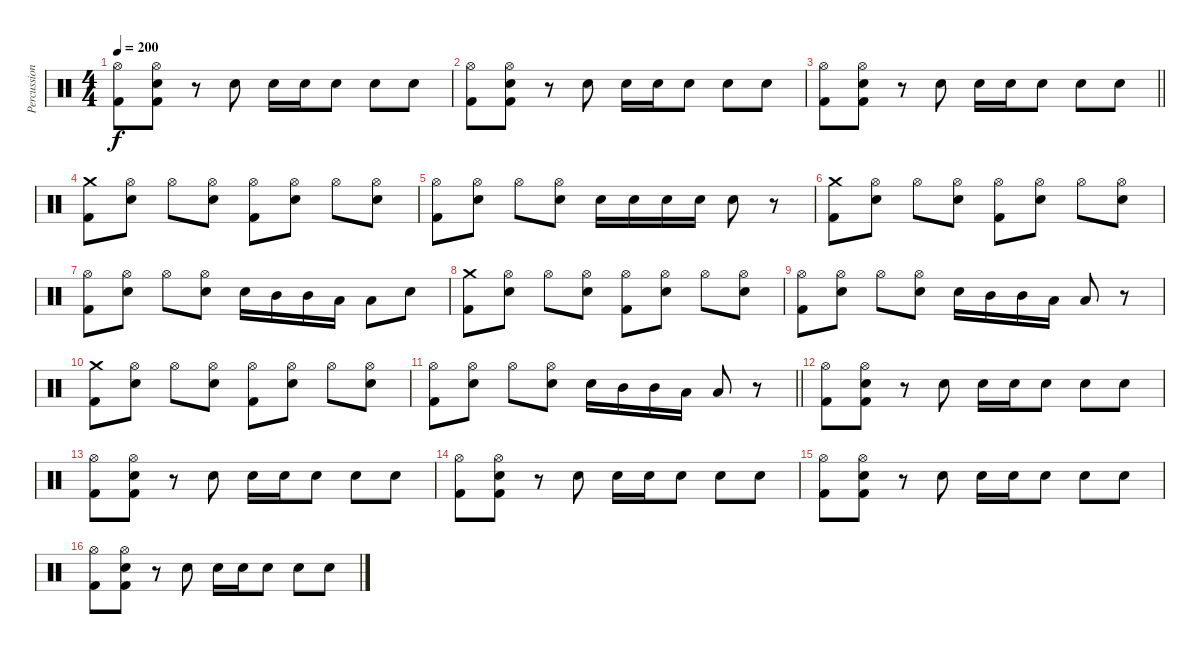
\track ("Percussion" "Percussion") {instrument percussion}
\staff {score}
\articulation defaults
\ts (4 4)
\tempo 200
\clef neutral
\ks c
("Hi-Hat (open)" "Kick (hit) 2").8{dy f} ("Hi-Hat (open)" "Electric Snare (hit)" "Kick (hit) 2").8 r.8 "Electric Snare (hit)".8 "Electric Snare (hit)".16 "Electric Snare (hit)".16 "Electric Snare (hit)".8 "Electric Snare (hit)".8 "Electric Snare (hit)".8 |
("Hi-Hat (open)" "Kick (hit) 2").8 ("Hi-Hat (open)" "Electric Snare (hit)" "Kick (hit) 2").8 r.8 "Electric Snare (hit)".8 "Electric Snare (hit)".16 "Electric Snare (hit)".16 "Electric Snare (hit)".8 "Electric Snare (hit)".8 "Electric Snare (hit)".8 |
\barLineRight lightlight
("Hi-Hat (open)" "Kick (hit) 2").8 ("Hi-Hat (open)" "Electric Snare (hit)" "Kick (hit) 2").8 r.8 "Electric Snare (hit)".8 "Electric Snare (hit)".16 "Electric Snare (hit)".16 "Electric Snare (hit)".8 "Electric Snare (hit)".8 "Electric Snare (hit)".8 |
("Crash medium (hit)" "Kick (hit) 2").8 ("Hi-Hat (open)" "Electric Snare (hit)").8 "Hi-Hat (open)".8 ("Hi-Hat (open)" "Electric Snare (hit)").8 ("Hi-Hat (open)" "Kick (hit) 2").8 ("Hi-Hat (open)" "Electric Snare (hit)").8 "Hi-Hat (open)".8 ("Hi-Hat (open)" "Electric Snare (hit)").8 |
("Hi-Hat (open)" "Kick (hit) 2").8 ("Hi-Hat (open)" "Electric Snare (hit)").8 "Hi-Hat (open)".8 ("Hi-Hat (open)" "Electric Snare (hit)").8 "Electric Snare (hit)".16 "Electric Snare (hit)".16 "Electric Snare (hit)".16 "Electric Snare (hit)".16 "Electric Snare (hit)".8 r.8 |
("Crash medium (hit)" "Kick (hit) 2").8 ("Hi-Hat (open)" "Electric Snare (hit)").8 "Hi-Hat (open)".8 ("Hi-Hat (open)" "Electric Snare (hit)").8 ("Hi-Hat (open)" "Kick (hit) 2").8 ("Hi-Hat (open)" "Electric Snare (hit)").8 "Hi-Hat (open)".8 ("Hi-Hat (open)" "Electric Snare (hit)").8 |
("Hi-Hat (open)" "Kick (hit) 2").8 ("Hi-Hat (open)" "Electric Snare (hit)").8 "Hi-Hat (open)".8 ("Hi-Hat (open)" "Electric Snare (hit)").8 "Electric Snare (hit)".16 "Mid Tom (hit)".16 "Mid Tom (hit)".16 "Low Tom (hit)".16 "Low Tom (hit)".8 "Electric Snare (hit)".8 |
("Crash medium (hit)" "Kick (hit) 2").8 ("Hi-Hat (open)" "Electric Snare (hit)").8 "Hi-Hat (open)".8 ("Hi-Hat (open)" "Electric Snare (hit)").8 ("Hi-Hat (open)" "Kick (hit) 2").8 ("Hi-Hat (open)" "Electric Snare (hit)").8 "Hi-Hat (open)".8 ("Hi-Hat (open)" "Electric Snare (hit)").8 |
("Hi-Hat (open)" "Kick (hit) 2").8 ("Hi-Hat (open)" "Electric Snare (hit)").8 "Hi-Hat (open)".8 ("Hi-Hat (open)" "Electric Snare (hit)").8 "Electric Snare (hit)".16 "Mid Tom (hit)".16 "Mid Tom (hit)".16 "Low Tom (hit)".16 "Low Tom (hit)".8 r.8 |
("Crash medium (hit)" "Kick (hit) 2").8 ("Hi-Hat (open)" "Electric Snare (hit)").8 "Hi-Hat (open)".8 ("Hi-Hat (open)" "Electric Snare (hit)").8 ("Hi-Hat (open)" "Kick (hit) 2").8 ("Hi-Hat (open)" "Electric Snare (hit)").8 "Hi-Hat (open)".8 ("Hi-Hat (open)" "Electric Snare (hit)").8 |
\barLineRight lightlight
("Hi-Hat (open)" "Kick (hit) 2").8 ("Hi-Hat (open)" "Electric Snare (hit)").8 "Hi-Hat (open)".8 ("Hi-Hat (open)" "Electric Snare (hit)").8 "Electric Snare (hit)".16 "Mid Tom (hit)".16 "Mid Tom (hit)".16 "Low Tom (hit)".16 "Low Tom (hit)".8 r.8 |
("Hi-Hat (open)" "Kick (hit) 2").8 ("Hi-Hat (open)" "Electric Snare (hit)" "Kick (hit) 2").8 r.8 "Electric Snare (hit)".8 "Electric Snare (hit)".16 "Electric Snare (hit)".16 "Electric Snare (hit)".8 "Electric Snare (hit)".8 "Electric Snare (hit)".8 |
("Hi-Hat (open)" "Kick (hit) 2").8 ("Hi-Hat (open)" "Electric Snare (hit)" "Kick (hit) 2").8 r.8 "Electric Snare (hit)".8 "Electric Snare (hit)".16 "Electric Snare (hit)".16 "Electric Snare (hit)".8 "Electric Snare (hit)".8 "Electric Snare (hit)".8 |
("Hi-Hat (open)" "Kick (hit) 2").8 ("Hi-Hat (open)" "Electric Snare (hit)" "Kick (hit) 2").8 r.8 "Electric Snare (hit)".8 "Electric Snare (hit)".16 "Electric Snare (hit)".16 "Electric Snare (hit)".8 "Electric Snare (hit)".8 "Electric Snare (hit)".8 |
("Hi-Hat (open)" "Kick (hit) 2").8 ("Hi-Hat (open)" "Electric Snare (hit)" "Kick (hit) 2").8 r.8 "Electric Snare (hit)".8 "Electric Snare (hit)".16 "Electric Snare (hit)".16 "Electric Snare (hit)".8 "Electric Snare (hit)".8 "Electric Snare (hit)".8 |
("Hi-Hat (open)" "Kick (hit) 2").8 ("Hi-Hat (open)" "Electric Snare (hit)" "Kick (hit) 2").8 r.8 "Electric Snare (hit)".8 "Electric Snare (hit)".16 "Electric Snare (hit)".16 "Electric Snare (hit)".8 "Electric Snare (hit)".8 "Electric Snare (hit)".8
